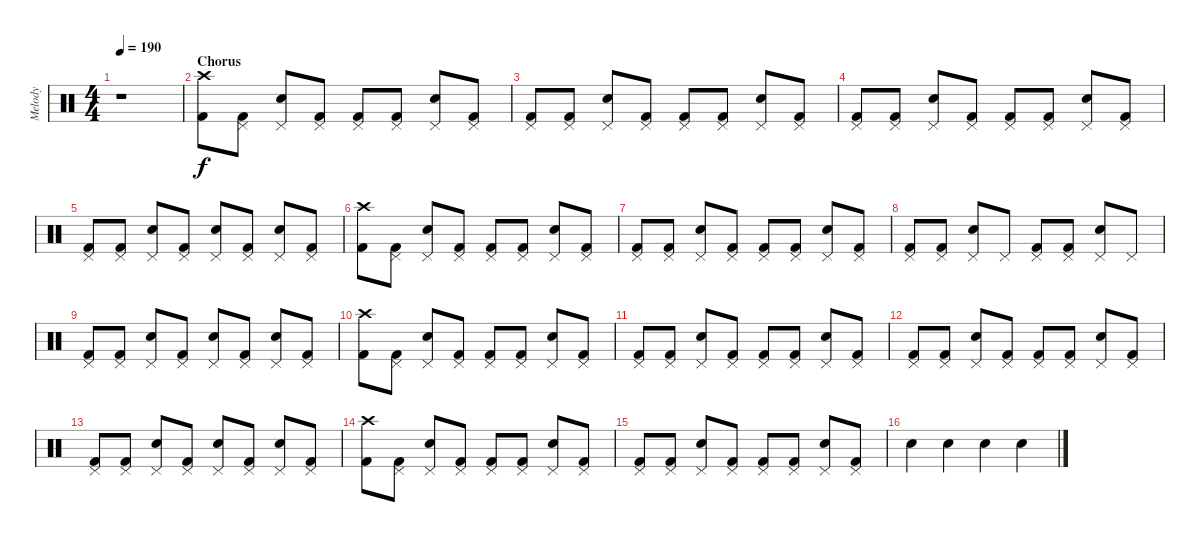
\track ("Melody" "Melody") {instrument percussion}
\staff {score}
\articulation defaults
\ts (4 4)
\tempo 190
\clef neutral
\ks c
r.1{dy f} |
\section ("" "Chorus")
("Crash high (hit)" "Kick (hit) 2").8 ("Pedal Hi-Hat (hit)" "Kick (hit) 2").8 ("Pedal Hi-Hat (hit)" "Snare (hit) 2").8 ("Pedal Hi-Hat (hit)" "Kick (hit) 2").8 ("Pedal Hi-Hat (hit)" "Kick (hit) 2").8 ("Pedal Hi-Hat (hit)" "Kick (hit) 2").8 ("Pedal Hi-Hat (hit)" "Snare (hit) 2").8 ("Pedal Hi-Hat (hit)" "Kick (hit) 2").8 |
("Pedal Hi-Hat (hit)" "Kick (hit) 2").8 ("Pedal Hi-Hat (hit)" "Kick (hit) 2").8 ("Pedal Hi-Hat (hit)" "Snare (hit) 2").8 ("Pedal Hi-Hat (hit)" "Kick (hit) 2").8 ("Pedal Hi-Hat (hit)" "Kick (hit) 2").8 ("Pedal Hi-Hat (hit)" "Kick (hit) 2").8 ("Pedal Hi-Hat (hit)" "Snare (hit) 2").8 ("Pedal Hi-Hat (hit)" "Kick (hit) 2").8 |
("Pedal Hi-Hat (hit)" "Kick (hit) 2").8 ("Pedal Hi-Hat (hit)" "Kick (hit) 2").8 ("Pedal Hi-Hat (hit)" "Snare (hit) 2").8 ("Pedal Hi-Hat (hit)" "Kick (hit) 2").8 ("Pedal Hi-Hat (hit)" "Kick (hit) 2").8 ("Pedal Hi-Hat (hit)" "Kick (hit) 2").8 ("Pedal Hi-Hat (hit)" "Snare (hit) 2").8 ("Pedal Hi-Hat (hit)" "Kick (hit) 2").8 |
("Pedal Hi-Hat (hit)" "Kick (hit) 2").8 ("Pedal Hi-Hat (hit)" "Kick (hit) 2").8 ("Pedal Hi-Hat (hit)" "Snare (hit) 2").8 ("Pedal Hi-Hat (hit)" "Kick (hit) 2").8 ("Pedal Hi-Hat (hit)" "Snare (hit) 2").8 ("Pedal Hi-Hat (hit)" "Kick (hit) 2").8 ("Pedal Hi-Hat (hit)" "Snare (hit) 2").8 ("Pedal Hi-Hat (hit)" "Kick (hit) 2").8 |
("Crash high (hit)" "Kick (hit) 2").8 ("Pedal Hi-Hat (hit)" "Kick (hit) 2").8 ("Pedal Hi-Hat (hit)" "Snare (hit) 2").8 ("Pedal Hi-Hat (hit)" "Kick (hit) 2").8 ("Pedal Hi-Hat (hit)" "Kick (hit) 2").8 ("Pedal Hi-Hat (hit)" "Kick (hit) 2").8 ("Pedal Hi-Hat (hit)" "Snare (hit) 2").8 ("Pedal Hi-Hat (hit)" "Kick (hit) 2").8 |
("Pedal Hi-Hat (hit)" "Kick (hit) 2").8 ("Pedal Hi-Hat (hit)" "Kick (hit) 2").8 ("Pedal Hi-Hat (hit)" "Snare (hit) 2").8 ("Pedal Hi-Hat (hit)" "Kick (hit) 2").8 ("Pedal Hi-Hat (hit)" "Kick (hit) 2").8 ("Pedal Hi-Hat (hit)" "Kick (hit) 2").8 ("Pedal Hi-Hat (hit)" "Snare (hit) 2").8 ("Pedal Hi-Hat (hit)" "Kick (hit) 2").8 |
("Pedal Hi-Hat (hit)" "Kick (hit) 2").8 ("Pedal Hi-Hat (hit)" "Kick (hit) 2").8 ("Pedal Hi-Hat (hit)" "Snare (hit) 2").8 "Pedal Hi-Hat (hit)".8 ("Pedal Hi-Hat (hit)" "Kick (hit) 2").8 ("Pedal Hi-Hat (hit)" "Kick (hit) 2").8 ("Pedal Hi-Hat (hit)" "Snare (hit) 2").8 "Pedal Hi-Hat (hit)".8 |
("Pedal Hi-Hat (hit)" "Kick (hit) 2").8 ("Pedal Hi-Hat (hit)" "Kick (hit) 2").8 ("Pedal Hi-Hat (hit)" "Snare (hit) 2").8 ("Pedal Hi-Hat (hit)" "Kick (hit) 2").8 ("Pedal Hi-Hat (hit)" "Snare (hit) 2").8 ("Pedal Hi-Hat (hit)" "Kick (hit) 2").8 ("Pedal Hi-Hat (hit)" "Snare (hit) 2").8 ("Pedal Hi-Hat (hit)" "Kick (hit) 2").8 |
("Crash high (hit)" "Kick (hit) 2").8 ("Pedal Hi-Hat (hit)" "Kick (hit) 2").8 ("Pedal Hi-Hat (hit)" "Snare (hit) 2").8 ("Pedal Hi-Hat (hit)" "Kick (hit) 2").8 ("Pedal Hi-Hat (hit)" "Kick (hit) 2").8 ("Pedal Hi-Hat (hit)" "Kick (hit) 2").8 ("Pedal Hi-Hat (hit)" "Snare (hit) 2").8 ("Pedal Hi-Hat (hit)" "Kick (hit) 2").8 |
("Pedal Hi-Hat (hit)" "Kick (hit) 2").8 ("Pedal Hi-Hat (hit)" "Kick (hit) 2").8 ("Pedal Hi-Hat (hit)" "Snare (hit) 2").8 ("Pedal Hi-Hat (hit)" "Kick (hit) 2").8 ("Pedal Hi-Hat (hit)" "Kick (hit) 2").8 ("Pedal Hi-Hat (hit)" "Kick (hit) 2").8 ("Pedal Hi-Hat (hit)" "Snare (hit) 2").8 ("Pedal Hi-Hat (hit)" "Kick (hit) 2").8 |
("Pedal Hi-Hat (hit)" "Kick (hit) 2").8 ("Pedal Hi-Hat (hit)" "Kick (hit) 2").8 ("Pedal Hi-Hat (hit)" "Snare (hit) 2").8 ("Pedal Hi-Hat (hit)" "Kick (hit) 2").8 ("Pedal Hi-Hat (hit)" "Kick (hit) 2").8 ("Pedal Hi-Hat (hit)" "Kick (hit) 2").8 ("Pedal Hi-Hat (hit)" "Snare (hit) 2").8 ("Pedal Hi-Hat (hit)" "Kick (hit) 2").8 |
("Pedal Hi-Hat (hit)" "Kick (hit) 2").8 ("Pedal Hi-Hat (hit)" "Kick (hit) 2").8 ("Pedal Hi-Hat (hit)" "Snare (hit) 2").8 ("Pedal Hi-Hat (hit)" "Kick (hit) 2").8 ("Pedal Hi-Hat (hit)" "Snare (hit) 2").8 ("Pedal Hi-Hat (hit)" "Kick (hit) 2").8 ("Pedal Hi-Hat (hit)" "Snare (hit) 2").8 ("Pedal Hi-Hat (hit)" "Kick (hit) 2").8 |
("Crash high (hit)" "Kick (hit) 2").8 ("Pedal Hi-Hat (hit)" "Kick (hit) 2").8 ("Pedal Hi-Hat (hit)" "Snare (hit) 2").8 ("Pedal Hi-Hat (hit)" "Kick (hit) 2").8 ("Pedal Hi-Hat (hit)" "Kick (hit) 2").8 ("Pedal Hi-Hat (hit)" "Kick (hit) 2").8 ("Pedal Hi-Hat (hit)" "Snare (hit) 2").8 ("Pedal Hi-Hat (hit)" "Kick (hit) 2").8 |
("Pedal Hi-Hat (hit)" "Kick (hit) 2").8 ("Pedal Hi-Hat (hit)" "Kick (hit) 2").8 ("Pedal Hi-Hat (hit)" "Snare (hit) 2").8 ("Pedal Hi-Hat (hit)" "Kick (hit) 2").8 ("Pedal Hi-Hat (hit)" "Kick (hit) 2").8 ("Pedal Hi-Hat (hit)" "Kick (hit) 2").8 ("Pedal Hi-Hat (hit)" "Snare (hit) 2").8 ("Pedal Hi-Hat (hit)" "Kick (hit) 2").8 |
"Snare (hit) 2".4 "Snare (hit) 2".4 "Snare (hit) 2".4 "Snare (hit) 2".4
